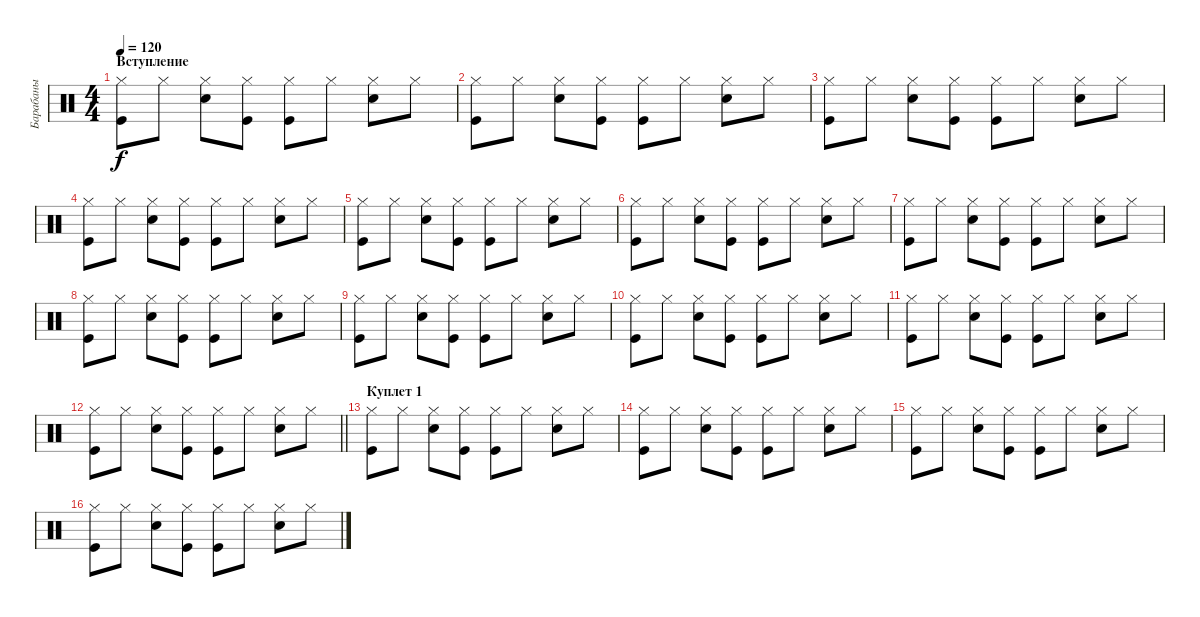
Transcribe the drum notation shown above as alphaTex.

\track ("Барабаны" "Барабаны") {instrument percussion}
\staff {score}
\articulation defaults
\ts (4 4)
\section ("" "Вступление")
\tempo 120
\clef neutral
\ks c
("Kick (hit)" "Hi-Hat (closed)").8{dy f} "Hi-Hat (closed)".8 ("Snare (hit) 2" "Hi-Hat (closed)").8 ("Kick (hit)" "Hi-Hat (closed)").8 ("Kick (hit)" "Hi-Hat (closed)").8 "Hi-Hat (closed)".8 ("Snare (hit) 2" "Hi-Hat (closed)").8 "Hi-Hat (closed)".8 |
("Kick (hit)" "Hi-Hat (closed)").8 "Hi-Hat (closed)".8 ("Snare (hit) 2" "Hi-Hat (closed)").8 ("Kick (hit)" "Hi-Hat (closed)").8 ("Kick (hit)" "Hi-Hat (closed)").8 "Hi-Hat (closed)".8 ("Snare (hit) 2" "Hi-Hat (closed)").8 "Hi-Hat (closed)".8 |
("Kick (hit)" "Hi-Hat (closed)").8 "Hi-Hat (closed)".8 ("Snare (hit) 2" "Hi-Hat (closed)").8 ("Kick (hit)" "Hi-Hat (closed)").8 ("Kick (hit)" "Hi-Hat (closed)").8 "Hi-Hat (closed)".8 ("Snare (hit) 2" "Hi-Hat (closed)").8 "Hi-Hat (closed)".8 |
("Kick (hit)" "Hi-Hat (closed)").8 "Hi-Hat (closed)".8 ("Snare (hit) 2" "Hi-Hat (closed)").8 ("Kick (hit)" "Hi-Hat (closed)").8 ("Kick (hit)" "Hi-Hat (closed)").8 "Hi-Hat (closed)".8 ("Snare (hit) 2" "Hi-Hat (closed)").8 "Hi-Hat (closed)".8 |
("Kick (hit)" "Hi-Hat (closed)").8 "Hi-Hat (closed)".8 ("Snare (hit) 2" "Hi-Hat (closed)").8 ("Kick (hit)" "Hi-Hat (closed)").8 ("Kick (hit)" "Hi-Hat (closed)").8 "Hi-Hat (closed)".8 ("Snare (hit) 2" "Hi-Hat (closed)").8 "Hi-Hat (closed)".8 |
("Kick (hit)" "Hi-Hat (closed)").8 "Hi-Hat (closed)".8 ("Snare (hit) 2" "Hi-Hat (closed)").8 ("Kick (hit)" "Hi-Hat (closed)").8 ("Kick (hit)" "Hi-Hat (closed)").8 "Hi-Hat (closed)".8 ("Snare (hit) 2" "Hi-Hat (closed)").8 "Hi-Hat (closed)".8 |
("Kick (hit)" "Hi-Hat (closed)").8 "Hi-Hat (closed)".8 ("Snare (hit) 2" "Hi-Hat (closed)").8 ("Kick (hit)" "Hi-Hat (closed)").8 ("Kick (hit)" "Hi-Hat (closed)").8 "Hi-Hat (closed)".8 ("Snare (hit) 2" "Hi-Hat (closed)").8 "Hi-Hat (closed)".8 |
("Kick (hit)" "Hi-Hat (closed)").8 "Hi-Hat (closed)".8 ("Snare (hit) 2" "Hi-Hat (closed)").8 ("Kick (hit)" "Hi-Hat (closed)").8 ("Kick (hit)" "Hi-Hat (closed)").8 "Hi-Hat (closed)".8 ("Snare (hit) 2" "Hi-Hat (closed)").8 "Hi-Hat (closed)".8 |
("Kick (hit)" "Hi-Hat (closed)").8 "Hi-Hat (closed)".8 ("Snare (hit) 2" "Hi-Hat (closed)").8 ("Kick (hit)" "Hi-Hat (closed)").8 ("Kick (hit)" "Hi-Hat (closed)").8 "Hi-Hat (closed)".8 ("Snare (hit) 2" "Hi-Hat (closed)").8 "Hi-Hat (closed)".8 |
("Kick (hit)" "Hi-Hat (closed)").8 "Hi-Hat (closed)".8 ("Snare (hit) 2" "Hi-Hat (closed)").8 ("Kick (hit)" "Hi-Hat (closed)").8 ("Kick (hit)" "Hi-Hat (closed)").8 "Hi-Hat (closed)".8 ("Snare (hit) 2" "Hi-Hat (closed)").8 "Hi-Hat (closed)".8 |
("Kick (hit)" "Hi-Hat (closed)").8 "Hi-Hat (closed)".8 ("Snare (hit) 2" "Hi-Hat (closed)").8 ("Kick (hit)" "Hi-Hat (closed)").8 ("Kick (hit)" "Hi-Hat (closed)").8 "Hi-Hat (closed)".8 ("Snare (hit) 2" "Hi-Hat (closed)").8 "Hi-Hat (closed)".8 |
\barLineRight lightlight
("Kick (hit)" "Hi-Hat (closed)").8 "Hi-Hat (closed)".8 ("Snare (hit) 2" "Hi-Hat (closed)").8 ("Kick (hit)" "Hi-Hat (closed)").8 ("Kick (hit)" "Hi-Hat (closed)").8 "Hi-Hat (closed)".8 ("Snare (hit) 2" "Hi-Hat (closed)").8 "Hi-Hat (closed)".8 |
\section ("" "Куплет 1")
("Kick (hit)" "Hi-Hat (closed)").8 "Hi-Hat (closed)".8 ("Snare (hit) 2" "Hi-Hat (closed)").8 ("Kick (hit)" "Hi-Hat (closed)").8 ("Kick (hit)" "Hi-Hat (closed)").8 "Hi-Hat (closed)".8 ("Snare (hit) 2" "Hi-Hat (closed)").8 "Hi-Hat (closed)".8 |
("Kick (hit)" "Hi-Hat (closed)").8 "Hi-Hat (closed)".8 ("Snare (hit) 2" "Hi-Hat (closed)").8 ("Kick (hit)" "Hi-Hat (closed)").8 ("Kick (hit)" "Hi-Hat (closed)").8 "Hi-Hat (closed)".8 ("Snare (hit) 2" "Hi-Hat (closed)").8 "Hi-Hat (closed)".8 |
("Kick (hit)" "Hi-Hat (closed)").8 "Hi-Hat (closed)".8 ("Snare (hit) 2" "Hi-Hat (closed)").8 ("Kick (hit)" "Hi-Hat (closed)").8 ("Kick (hit)" "Hi-Hat (closed)").8 "Hi-Hat (closed)".8 ("Snare (hit) 2" "Hi-Hat (closed)").8 "Hi-Hat (closed)".8 |
("Kick (hit)" "Hi-Hat (closed)").8 "Hi-Hat (closed)".8 ("Snare (hit) 2" "Hi-Hat (closed)").8 ("Kick (hit)" "Hi-Hat (closed)").8 ("Kick (hit)" "Hi-Hat (closed)").8 "Hi-Hat (closed)".8 ("Snare (hit) 2" "Hi-Hat (closed)").8 "Hi-Hat (closed)".8
